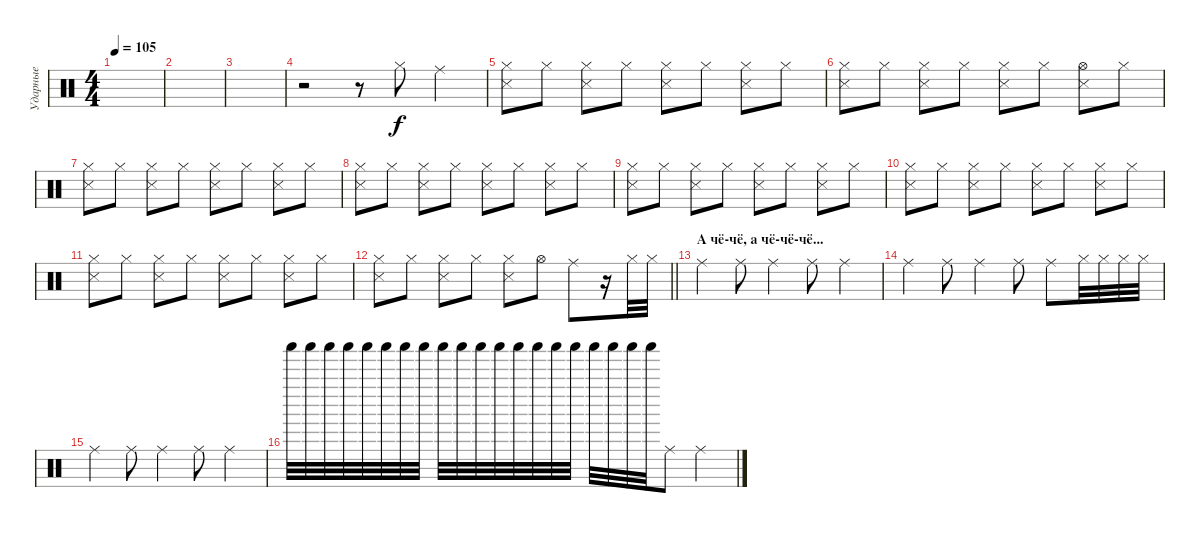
\track ("Ударные" "Ударные") {instrument percussion}
\staff {score}
\articulation defaults
\ts (4 4)
\tempo 105
\clef neutral
\ks c
|
|
|
r.2 r.8 "Hi-Hat (closed)".8 "Ride (middle)".4 |
("Hi-Hat (closed)" "Snare (side stick) 3").8 "Hi-Hat (closed)".8 ("Hi-Hat (closed)" "Snare (side stick) 3").8 "Hi-Hat (closed)".8 ("Hi-Hat (closed)" "Snare (side stick) 3").8 "Hi-Hat (closed)".8 ("Hi-Hat (closed)" "Snare (side stick) 3").8 "Hi-Hat (closed)".8 |
("Hi-Hat (closed)" "Snare (side stick) 3").8 "Hi-Hat (closed)".8 ("Hi-Hat (closed)" "Snare (side stick) 3").8 "Hi-Hat (closed)".8 ("Hi-Hat (closed)" "Snare (side stick) 3").8 "Hi-Hat (closed)".8 ("Hi-Hat (open)" "Snare (side stick) 3").8 "Hi-Hat (closed)".8 |
("Hi-Hat (closed)" "Snare (side stick) 3").8 "Hi-Hat (closed)".8 ("Hi-Hat (closed)" "Snare (side stick) 3").8 "Hi-Hat (closed)".8 ("Hi-Hat (closed)" "Snare (side stick) 3").8 "Hi-Hat (closed)".8 ("Hi-Hat (closed)" "Snare (side stick) 3").8 "Hi-Hat (closed)".8 |
("Hi-Hat (closed)" "Snare (side stick) 3").8 "Hi-Hat (closed)".8 ("Hi-Hat (closed)" "Snare (side stick) 3").8 "Hi-Hat (closed)".8 ("Hi-Hat (closed)" "Snare (side stick) 3").8 "Hi-Hat (closed)".8 ("Hi-Hat (closed)" "Snare (side stick) 3").8 "Hi-Hat (closed)".8 |
("Hi-Hat (closed)" "Snare (side stick) 3").8 "Hi-Hat (closed)".8 ("Hi-Hat (closed)" "Snare (side stick) 3").8 "Hi-Hat (closed)".8 ("Hi-Hat (closed)" "Snare (side stick) 3").8 "Hi-Hat (closed)".8 ("Hi-Hat (closed)" "Snare (side stick) 3").8 "Hi-Hat (closed)".8 |
("Hi-Hat (closed)" "Snare (side stick) 3").8 "Hi-Hat (closed)".8 ("Hi-Hat (closed)" "Snare (side stick) 3").8 "Hi-Hat (closed)".8 ("Hi-Hat (closed)" "Snare (side stick) 3").8 "Hi-Hat (closed)".8 ("Hi-Hat (closed)" "Snare (side stick) 3").8 "Hi-Hat (closed)".8 |
("Hi-Hat (closed)" "Snare (side stick) 3").8 "Hi-Hat (closed)".8 ("Hi-Hat (closed)" "Snare (side stick) 3").8 "Hi-Hat (closed)".8 ("Hi-Hat (closed)" "Snare (side stick) 3").8 "Hi-Hat (closed)".8 ("Hi-Hat (closed)" "Snare (side stick) 3").8 "Hi-Hat (closed)".8 |
\barLineRight lightlight
("Hi-Hat (closed)" "Snare (side stick) 3").8 "Hi-Hat (closed)".8 ("Hi-Hat (closed)" "Snare (side stick) 3").8 "Hi-Hat (closed)".8 ("Hi-Hat (closed)" "Snare (side stick) 3").8 "Hi-Hat (open)".8 "Ride (middle)".8 r.16 "Hi-Hat (closed)".32 "Hi-Hat (closed)".32 |
\section ("" "А чё-чё, а чё-чё-чё...")
"Ride (middle)".4 "Ride (middle)".8 "Ride (middle)".4 "Ride (middle)".8 "Ride (middle)".4 |
"Ride (middle)".4 "Ride (middle)".8 "Ride (middle)".4 "Ride (middle)".8 "Ride (middle)".8 "Hi-Hat (closed)".32 "Hi-Hat (closed)".32 "Hi-Hat (closed)".32 "Hi-Hat (closed)".32 |
"Ride (middle)".4 "Ride (middle)".8 "Ride (middle)".4 "Ride (middle)".8 "Ride (middle)".4 |
"Shaker (hit)".32 "Shaker (hit)".32 "Shaker (hit)".32 "Shaker (hit)".32 "Shaker (hit)".32 "Shaker (hit)".32 "Shaker (hit)".32 "Shaker (hit)".32 "Shaker (hit)".32 "Shaker (hit)".32 "Shaker (hit)".32 "Shaker (hit)".32 "Shaker (hit)".32 "Shaker (hit)".32 "Shaker (hit)".32 "Shaker (hit)".32 "Shaker (hit)".32 "Shaker (hit)".32 "Shaker (hit)".32 "Shaker (hit)".32 "Ride (middle)".8 "Ride (middle)".4
